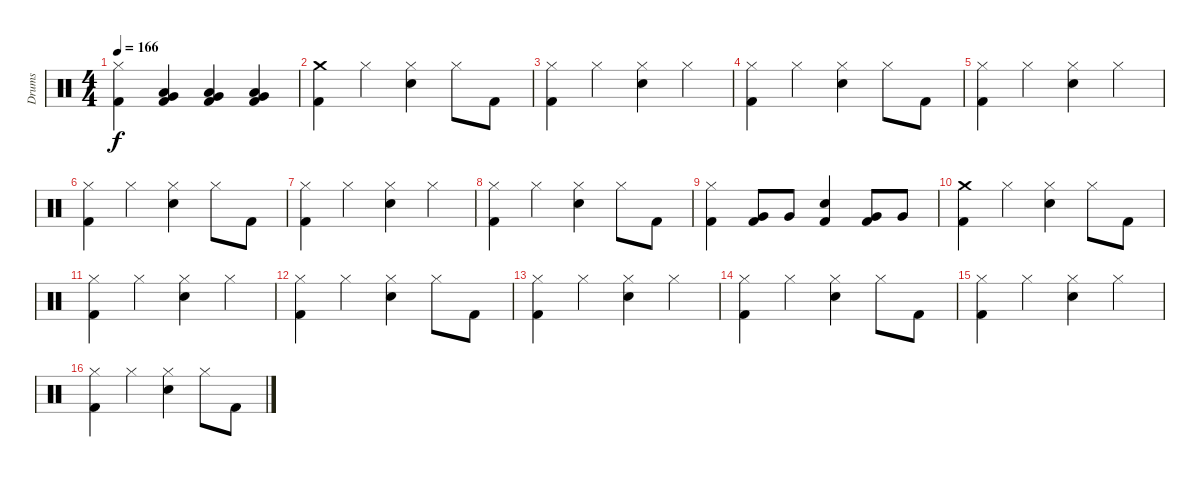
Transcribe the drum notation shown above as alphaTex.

\track ("Drums" "Drums") {instrument percussion}
\staff {score}
\articulation defaults
\ts (4 4)
\tempo 166
\clef neutral
\ks c
("Hi-Hat (closed)" "Kick (hit) 2").4{dy f} ("Low Tom (hit)" "Very Low Tom (hit)" "Kick (hit) 2").4 ("Low Tom (hit)" "Very Low Tom (hit)" "Kick (hit) 2").4 ("Very Low Tom (hit)" "Low Floor Tom (hit)" "Kick (hit) 2").4 |
("Crash medium (hit)" "Kick (hit) 2").4 "Hi-Hat (closed)".4 ("Hi-Hat (closed)" "Snare (hit) 2").4 "Hi-Hat (closed)".8 "Kick (hit) 2".8 |
("Hi-Hat (closed)" "Kick (hit) 2").4 "Hi-Hat (closed)".4 ("Hi-Hat (closed)" "Snare (hit) 2").4 "Hi-Hat (closed)".4 |
("Hi-Hat (closed)" "Kick (hit) 2").4 "Hi-Hat (closed)".4 ("Hi-Hat (closed)" "Snare (hit) 2").4 "Hi-Hat (closed)".8 "Kick (hit) 2".8 |
("Hi-Hat (closed)" "Kick (hit) 2").4 "Hi-Hat (closed)".4 ("Hi-Hat (closed)" "Snare (hit) 2").4 "Hi-Hat (closed)".4 |
("Hi-Hat (closed)" "Kick (hit) 2").4 "Hi-Hat (closed)".4 ("Hi-Hat (closed)" "Snare (hit) 2").4 "Hi-Hat (closed)".8 "Kick (hit) 2".8 |
("Hi-Hat (closed)" "Kick (hit) 2").4 "Hi-Hat (closed)".4 ("Hi-Hat (closed)" "Snare (hit) 2").4 "Hi-Hat (closed)".4 |
("Hi-Hat (closed)" "Kick (hit) 2").4 "Hi-Hat (closed)".4 ("Hi-Hat (closed)" "Snare (hit) 2").4 "Hi-Hat (closed)".8 "Kick (hit) 2".8 |
("Hi-Hat (closed)" "Kick (hit) 2").4 ("Very Low Tom (hit)" "Kick (hit) 2").8 "Very Low Tom (hit)".8 ("Snare (hit) 2" "Kick (hit) 2").4 ("Very Low Tom (hit)" "Kick (hit) 2").8 "Very Low Tom (hit)".8 |
("Crash medium (hit)" "Kick (hit) 2").4 "Hi-Hat (closed)".4 ("Hi-Hat (closed)" "Snare (hit) 2").4 "Hi-Hat (closed)".8 "Kick (hit) 2".8 |
("Hi-Hat (closed)" "Kick (hit) 2").4 "Hi-Hat (closed)".4 ("Hi-Hat (closed)" "Snare (hit) 2").4 "Hi-Hat (closed)".4 |
("Hi-Hat (closed)" "Kick (hit) 2").4 "Hi-Hat (closed)".4 ("Hi-Hat (closed)" "Snare (hit) 2").4 "Hi-Hat (closed)".8 "Kick (hit) 2".8 |
("Hi-Hat (closed)" "Kick (hit) 2").4 "Hi-Hat (closed)".4 ("Hi-Hat (closed)" "Snare (hit) 2").4 "Hi-Hat (closed)".4 |
("Hi-Hat (closed)" "Kick (hit) 2").4 "Hi-Hat (closed)".4 ("Hi-Hat (closed)" "Snare (hit) 2").4 "Hi-Hat (closed)".8 "Kick (hit) 2".8 |
("Hi-Hat (closed)" "Kick (hit) 2").4 "Hi-Hat (closed)".4 ("Hi-Hat (closed)" "Snare (hit) 2").4 "Hi-Hat (closed)".4 |
("Hi-Hat (closed)" "Kick (hit) 2").4 "Hi-Hat (closed)".4 ("Hi-Hat (closed)" "Snare (hit) 2").4 "Hi-Hat (closed)".8 "Kick (hit) 2".8
